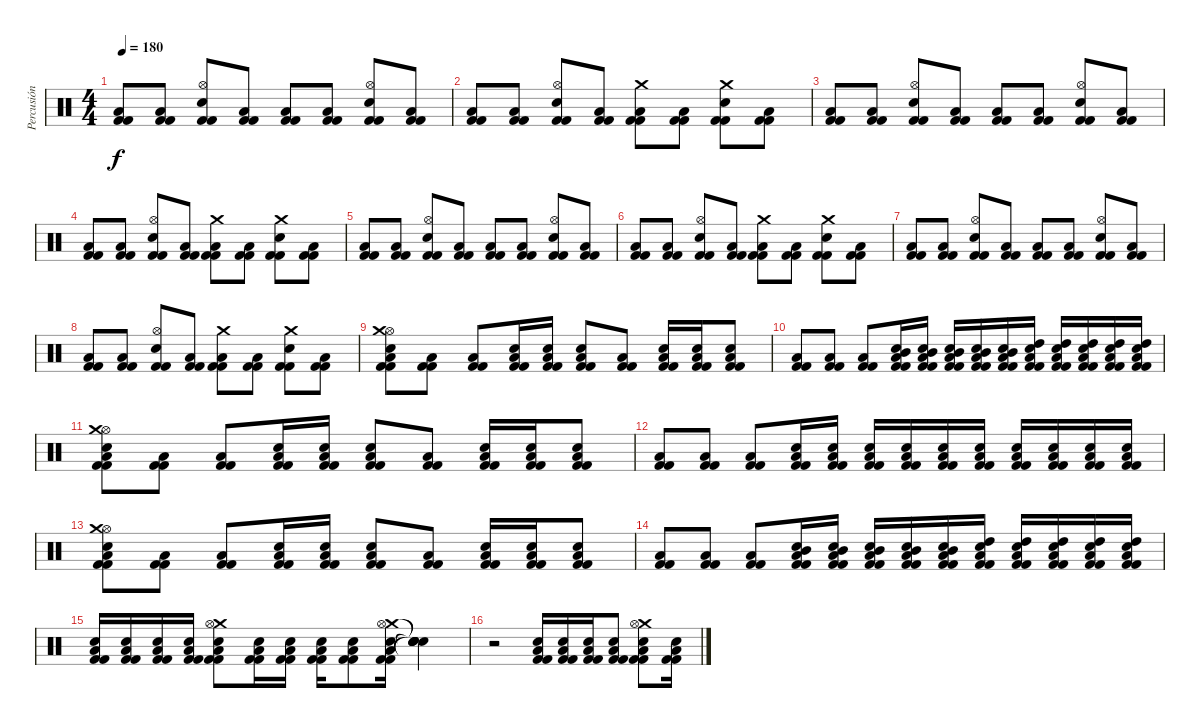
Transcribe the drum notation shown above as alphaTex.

\track ("Percusión" "Percusión") {instrument percussion}
\staff {score}
\articulation defaults
\ts (4 4)
\tempo 180
\clef neutral
\ks c
("Kick (hit) 2" "Kick (hit) 2" "Low Floor Tom (hit)").8{dy f} ("Kick (hit) 2" "Kick (hit) 2" "Low Floor Tom (hit)").8 ("Hi-Hat (open)" "Kick (hit) 2" "Kick (hit) 2" "Snare (hit) 2").8 ("Kick (hit) 2" "Kick (hit) 2" "Low Floor Tom (hit)").8 ("Kick (hit) 2" "Kick (hit) 2" "Low Floor Tom (hit)").8 ("Kick (hit) 2" "Kick (hit) 2" "Low Floor Tom (hit)").8 ("Hi-Hat (open)" "Kick (hit) 2" "Kick (hit) 2" "Snare (hit) 2").8 ("Kick (hit) 2" "Kick (hit) 2" "Low Floor Tom (hit)").8 |
("Kick (hit) 2" "Kick (hit) 2" "Low Floor Tom (hit)").8 ("Kick (hit) 2" "Kick (hit) 2" "Low Floor Tom (hit)").8 ("Hi-Hat (open)" "Kick (hit) 2" "Kick (hit) 2" "Snare (hit) 2").8 ("Kick (hit) 2" "Kick (hit) 2" "Low Floor Tom (hit)").8 ("Crash medium (hit)" "Kick (hit) 2" "Kick (hit) 2" "Low Floor Tom (hit)").8 ("Kick (hit) 2" "Kick (hit) 2" "Low Floor Tom (hit)").8 ("Crash medium (hit)" "Kick (hit) 2" "Kick (hit) 2" "Snare (hit) 2").8 ("Kick (hit) 2" "Kick (hit) 2" "Low Floor Tom (hit)").8 |
("Kick (hit) 2" "Kick (hit) 2" "Low Floor Tom (hit)").8 ("Kick (hit) 2" "Kick (hit) 2" "Low Floor Tom (hit)").8 ("Hi-Hat (open)" "Kick (hit) 2" "Kick (hit) 2" "Snare (hit) 2").8 ("Kick (hit) 2" "Kick (hit) 2" "Low Floor Tom (hit)").8 ("Kick (hit) 2" "Kick (hit) 2" "Low Floor Tom (hit)").8 ("Kick (hit) 2" "Kick (hit) 2" "Low Floor Tom (hit)").8 ("Hi-Hat (open)" "Kick (hit) 2" "Kick (hit) 2" "Snare (hit) 2").8 ("Kick (hit) 2" "Kick (hit) 2" "Low Floor Tom (hit)").8 |
("Kick (hit) 2" "Kick (hit) 2" "Low Floor Tom (hit)").8 ("Kick (hit) 2" "Kick (hit) 2" "Low Floor Tom (hit)").8 ("Hi-Hat (open)" "Kick (hit) 2" "Kick (hit) 2" "Snare (hit) 2").8 ("Kick (hit) 2" "Kick (hit) 2" "Low Floor Tom (hit)").8 ("Crash medium (hit)" "Kick (hit) 2" "Kick (hit) 2" "Low Floor Tom (hit)").8 ("Kick (hit) 2" "Kick (hit) 2" "Low Floor Tom (hit)").8 ("Crash medium (hit)" "Kick (hit) 2" "Kick (hit) 2" "Snare (hit) 2").8 ("Kick (hit) 2" "Kick (hit) 2" "Low Floor Tom (hit)").8 |
("Kick (hit) 2" "Kick (hit) 2" "Low Floor Tom (hit)").8 ("Kick (hit) 2" "Kick (hit) 2" "Low Floor Tom (hit)").8 ("Hi-Hat (open)" "Kick (hit) 2" "Kick (hit) 2" "Snare (hit) 2").8 ("Kick (hit) 2" "Kick (hit) 2" "Low Floor Tom (hit)").8 ("Kick (hit) 2" "Kick (hit) 2" "Low Floor Tom (hit)").8 ("Kick (hit) 2" "Kick (hit) 2" "Low Floor Tom (hit)").8 ("Hi-Hat (open)" "Kick (hit) 2" "Kick (hit) 2" "Snare (hit) 2").8 ("Kick (hit) 2" "Kick (hit) 2" "Low Floor Tom (hit)").8 |
("Kick (hit) 2" "Kick (hit) 2" "Low Floor Tom (hit)").8 ("Kick (hit) 2" "Kick (hit) 2" "Low Floor Tom (hit)").8 ("Hi-Hat (open)" "Kick (hit) 2" "Kick (hit) 2" "Snare (hit) 2").8 ("Kick (hit) 2" "Kick (hit) 2" "Low Floor Tom (hit)").8 ("Crash medium (hit)" "Kick (hit) 2" "Kick (hit) 2" "Low Floor Tom (hit)").8 ("Kick (hit) 2" "Kick (hit) 2" "Low Floor Tom (hit)").8 ("Crash medium (hit)" "Kick (hit) 2" "Kick (hit) 2" "Snare (hit) 2").8 ("Kick (hit) 2" "Kick (hit) 2" "Low Floor Tom (hit)").8 |
("Kick (hit) 2" "Kick (hit) 2" "Low Floor Tom (hit)").8 ("Kick (hit) 2" "Kick (hit) 2" "Low Floor Tom (hit)").8 ("Hi-Hat (open)" "Kick (hit) 2" "Kick (hit) 2" "Snare (hit) 2").8 ("Kick (hit) 2" "Kick (hit) 2" "Low Floor Tom (hit)").8 ("Kick (hit) 2" "Kick (hit) 2" "Low Floor Tom (hit)").8 ("Kick (hit) 2" "Kick (hit) 2" "Low Floor Tom (hit)").8 ("Hi-Hat (open)" "Kick (hit) 2" "Kick (hit) 2" "Snare (hit) 2").8 ("Kick (hit) 2" "Kick (hit) 2" "Low Floor Tom (hit)").8 |
("Kick (hit) 2" "Kick (hit) 2" "Low Floor Tom (hit)").8 ("Kick (hit) 2" "Kick (hit) 2" "Low Floor Tom (hit)").8 ("Hi-Hat (open)" "Kick (hit) 2" "Kick (hit) 2" "Snare (hit) 2").8 ("Kick (hit) 2" "Kick (hit) 2" "Low Floor Tom (hit)").8 ("Crash medium (hit)" "Kick (hit) 2" "Kick (hit) 2" "Low Floor Tom (hit)").8 ("Kick (hit) 2" "Kick (hit) 2" "Low Floor Tom (hit)").8 ("Crash medium (hit)" "Kick (hit) 2" "Kick (hit) 2" "Snare (hit) 2").8 ("Kick (hit) 2" "Kick (hit) 2" "Low Floor Tom (hit)").8 |
("Hi-Hat (open)" "Crash medium (hit)" "Kick (hit) 2" "Kick (hit) 2" "Snare (hit) 2" "Low Floor Tom (hit)").8 ("Kick (hit) 2" "Kick (hit) 2" "Low Floor Tom (hit)").8 ("Kick (hit) 2" "Kick (hit) 2" "Low Floor Tom (hit)").8 ("Kick (hit) 2" "Kick (hit) 2" "Low Floor Tom (hit)" "Snare (hit) 2").16 ("Kick (hit) 2" "Kick (hit) 2" "Low Floor Tom (hit)" "Snare (hit) 2").16 ("Kick (hit) 2" "Kick (hit) 2" "Low Floor Tom (hit)" "Snare (hit) 2").8 ("Kick (hit) 2" "Kick (hit) 2" "Low Floor Tom (hit)").8 ("Kick (hit) 2" "Kick (hit) 2" "Low Floor Tom (hit)" "Snare (hit) 2").16 ("Kick (hit) 2" "Kick (hit) 2" "Low Floor Tom (hit)" "Snare (hit) 2").16 ("Kick (hit) 2" "Kick (hit) 2" "Low Floor Tom (hit)" "Snare (hit) 2").8 |
("Kick (hit) 2" "Kick (hit) 2" "Low Floor Tom (hit)").8 ("Kick (hit) 2" "Kick (hit) 2" "Low Floor Tom (hit)").8 ("Kick (hit) 2" "Kick (hit) 2" "Low Floor Tom (hit)").8 ("Mid Tom (hit)" "Kick (hit) 2" "Kick (hit) 2" "Low Floor Tom (hit)" "Snare (hit) 2").16 ("Mid Tom (hit)" "Kick (hit) 2" "Kick (hit) 2" "Low Floor Tom (hit)" "Snare (hit) 2").16 ("Mid Tom (hit)" "Kick (hit) 2" "Kick (hit) 2" "Low Floor Tom (hit)" "Snare (hit) 2").16 ("Mid Tom (hit)" "Kick (hit) 2" "Kick (hit) 2" "Low Floor Tom (hit)" "Snare (hit) 2").16 ("Mid Tom (hit)" "Kick (hit) 2" "Kick (hit) 2" "Low Floor Tom (hit)" "Snare (hit) 2").16 ("High Tom (hit)" "Kick (hit) 2" "Kick (hit) 2" "Low Floor Tom (hit)" "Snare (hit) 2").16 ("High Tom (hit)" "Kick (hit) 2" "Kick (hit) 2" "Low Floor Tom (hit)" "Snare (hit) 2").16 ("High Tom (hit)" "Kick (hit) 2" "Kick (hit) 2" "Low Floor Tom (hit)" "Snare (hit) 2").16 ("High Tom (hit)" "Kick (hit) 2" "Kick (hit) 2" "Low Floor Tom (hit)" "Snare (hit) 2").16 ("High Tom (hit)" "Kick (hit) 2" "Kick (hit) 2" "Low Floor Tom (hit)" "Snare (hit) 2").16 |
("Hi-Hat (open)" "Crash medium (hit)" "Kick (hit) 2" "Kick (hit) 2" "Snare (hit) 2" "Low Floor Tom (hit)").8 ("Kick (hit) 2" "Kick (hit) 2" "Low Floor Tom (hit)").8 ("Kick (hit) 2" "Kick (hit) 2" "Low Floor Tom (hit)").8 ("Kick (hit) 2" "Kick (hit) 2" "Low Floor Tom (hit)" "Snare (hit) 2").16 ("Kick (hit) 2" "Kick (hit) 2" "Low Floor Tom (hit)" "Snare (hit) 2").16 ("Kick (hit) 2" "Kick (hit) 2" "Low Floor Tom (hit)" "Snare (hit) 2").8 ("Kick (hit) 2" "Kick (hit) 2" "Low Floor Tom (hit)").8 ("Kick (hit) 2" "Kick (hit) 2" "Low Floor Tom (hit)" "Snare (hit) 2").16 ("Kick (hit) 2" "Kick (hit) 2" "Low Floor Tom (hit)" "Snare (hit) 2").16 ("Kick (hit) 2" "Kick (hit) 2" "Low Floor Tom (hit)" "Snare (hit) 2").8 |
("Kick (hit) 2" "Kick (hit) 2" "Low Floor Tom (hit)").8 ("Kick (hit) 2" "Kick (hit) 2" "Low Floor Tom (hit)").8 ("Kick (hit) 2" "Kick (hit) 2" "Low Floor Tom (hit)").8 ("Kick (hit) 2" "Kick (hit) 2" "Low Floor Tom (hit)" "Snare (hit) 2").16 ("Kick (hit) 2" "Kick (hit) 2" "Low Floor Tom (hit)" "Snare (hit) 2").16 ("Kick (hit) 2" "Kick (hit) 2" "Low Floor Tom (hit)" "Snare (hit) 2").16 ("Kick (hit) 2" "Kick (hit) 2" "Low Floor Tom (hit)" "Snare (hit) 2").16 ("Kick (hit) 2" "Kick (hit) 2" "Low Floor Tom (hit)" "Snare (hit) 2").16 ("Kick (hit) 2" "Kick (hit) 2" "Low Floor Tom (hit)" "Snare (hit) 2").16 ("Kick (hit) 2" "Kick (hit) 2" "Low Floor Tom (hit)" "Snare (hit) 2").16 ("Kick (hit) 2" "Kick (hit) 2" "Low Floor Tom (hit)" "Snare (hit) 2").16 ("Kick (hit) 2" "Kick (hit) 2" "Low Floor Tom (hit)" "Snare (hit) 2").16 ("Kick (hit) 2" "Kick (hit) 2" "Low Floor Tom (hit)" "Snare (hit) 2").16 |
("Hi-Hat (open)" "Crash medium (hit)" "Kick (hit) 2" "Kick (hit) 2" "Snare (hit) 2" "Low Floor Tom (hit)").8 ("Kick (hit) 2" "Kick (hit) 2" "Low Floor Tom (hit)").8 ("Kick (hit) 2" "Kick (hit) 2" "Low Floor Tom (hit)").8 ("Kick (hit) 2" "Kick (hit) 2" "Low Floor Tom (hit)" "Snare (hit) 2").16 ("Kick (hit) 2" "Kick (hit) 2" "Low Floor Tom (hit)" "Snare (hit) 2").16 ("Kick (hit) 2" "Kick (hit) 2" "Low Floor Tom (hit)" "Snare (hit) 2").8 ("Kick (hit) 2" "Kick (hit) 2" "Low Floor Tom (hit)").8 ("Kick (hit) 2" "Kick (hit) 2" "Low Floor Tom (hit)" "Snare (hit) 2").16 ("Kick (hit) 2" "Kick (hit) 2" "Low Floor Tom (hit)" "Snare (hit) 2").16 ("Kick (hit) 2" "Kick (hit) 2" "Low Floor Tom (hit)" "Snare (hit) 2").8 |
("Kick (hit) 2" "Kick (hit) 2" "Low Floor Tom (hit)").8 ("Kick (hit) 2" "Kick (hit) 2" "Low Floor Tom (hit)").8 ("Kick (hit) 2" "Kick (hit) 2" "Low Floor Tom (hit)").8 ("Mid Tom (hit)" "Kick (hit) 2" "Kick (hit) 2" "Low Floor Tom (hit)" "Snare (hit) 2").16 ("Mid Tom (hit)" "Kick (hit) 2" "Kick (hit) 2" "Low Floor Tom (hit)" "Snare (hit) 2").16 ("Mid Tom (hit)" "Kick (hit) 2" "Kick (hit) 2" "Low Floor Tom (hit)" "Snare (hit) 2").16 ("Mid Tom (hit)" "Kick (hit) 2" "Kick (hit) 2" "Low Floor Tom (hit)" "Snare (hit) 2").16 ("Mid Tom (hit)" "Kick (hit) 2" "Kick (hit) 2" "Low Floor Tom (hit)" "Snare (hit) 2").16 ("High Tom (hit)" "Kick (hit) 2" "Kick (hit) 2" "Low Floor Tom (hit)" "Snare (hit) 2").16 ("High Tom (hit)" "Kick (hit) 2" "Kick (hit) 2" "Low Floor Tom (hit)" "Snare (hit) 2").16 ("High Tom (hit)" "Kick (hit) 2" "Kick (hit) 2" "Low Floor Tom (hit)" "Snare (hit) 2").16 ("High Tom (hit)" "Kick (hit) 2" "Kick (hit) 2" "Low Floor Tom (hit)" "Snare (hit) 2").16 ("High Tom (hit)" "Kick (hit) 2" "Kick (hit) 2" "Low Floor Tom (hit)" "Snare (hit) 2").16 |
("Kick (hit) 2" "Kick (hit) 2" "Low Floor Tom (hit)" "Snare (hit) 2").16 ("Kick (hit) 2" "Kick (hit) 2" "Low Floor Tom (hit)" "Snare (hit) 2").16 ("Kick (hit) 2" "Kick (hit) 2" "Low Floor Tom (hit)" "Snare (hit) 2").16 ("Kick (hit) 2" "Kick (hit) 2" "Low Floor Tom (hit)" "Snare (hit) 2").16 ("Crash medium (hit)" "Hi-Hat (open)" "Kick (hit) 2" "Kick (hit) 2" "Low Floor Tom (hit)" "Snare (hit) 2").8 ("Kick (hit) 2" "Kick (hit) 2" "Low Floor Tom (hit)" "Snare (hit) 2").16 ("Kick (hit) 2" "Kick (hit) 2" "Low Floor Tom (hit)" "Snare (hit) 2").16 ("Kick (hit) 2" "Kick (hit) 2" "Low Floor Tom (hit)" "Snare (hit) 2").16 ("Kick (hit) 2" "Kick (hit) 2" "Low Floor Tom (hit)" "Snare (hit) 2").8 ("Crash medium (hit)" "Hi-Hat (open)" "Kick (hit) 2" "Kick (hit) 2" "Low Floor Tom (hit)" "Snare (hit) 2").16 ("Snare (hit)"{t} "Snare (hit)"{t} "Snare (hit)"{t} "Snare (hit)"{t} "Snare (hit)"{t}).4 |
r.2 ("Kick (hit) 2" "Kick (hit) 2" "Low Floor Tom (hit)" "Snare (hit) 2").16 ("Kick (hit) 2" "Kick (hit) 2" "Low Floor Tom (hit)" "Snare (hit) 2").16 ("Kick (hit) 2" "Kick (hit) 2" "Low Floor Tom (hit)" "Snare (hit) 2").16 ("Kick (hit) 2" "Kick (hit) 2" "Low Floor Tom (hit)" "Snare (hit) 2").8 ("Crash medium (hit)" "Hi-Hat (open)" "Kick (hit) 2" "Kick (hit) 2" "Low Floor Tom (hit)" "Snare (hit) 2").8 ("Kick (hit) 2" "Kick (hit) 2" "Low Floor Tom (hit)" "Snare (hit) 2").16
